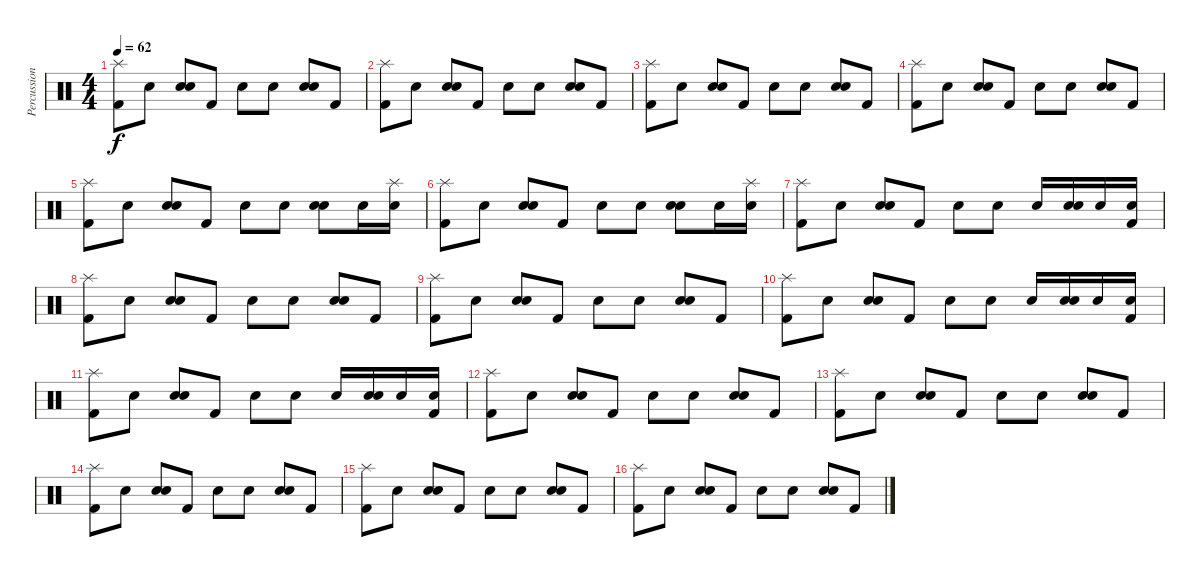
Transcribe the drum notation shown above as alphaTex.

\track ("Percussions" "Percussion") {instrument percussion}
\staff {score}
\articulation defaults
\ts (4 4)
\tempo 62
\clef neutral
\ks c
("Kick (hit) 2" "Splash (hit)").8{dy f} "Electric Snare (hit)".8 ("Snare (hit) 2" "Electric Snare (hit)").8 "Kick (hit) 2".8 "Electric Snare (hit)".8 "Electric Snare (hit)".8 ("Snare (hit) 2" "Electric Snare (hit)").8 "Kick (hit) 2".8 |
("Kick (hit) 2" "Splash (hit)").8 "Electric Snare (hit)".8 ("Snare (hit) 2" "Electric Snare (hit)").8 "Kick (hit) 2".8 "Electric Snare (hit)".8 "Electric Snare (hit)".8 ("Snare (hit) 2" "Electric Snare (hit)").8 "Kick (hit) 2".8 |
("Kick (hit) 2" "Splash (hit)").8 "Electric Snare (hit)".8 ("Snare (hit) 2" "Electric Snare (hit)").8 "Kick (hit) 2".8 "Electric Snare (hit)".8 "Electric Snare (hit)".8 ("Snare (hit) 2" "Electric Snare (hit)").8 "Kick (hit) 2".8 |
("Kick (hit) 2" "Splash (hit)").8 "Electric Snare (hit)".8 ("Snare (hit) 2" "Electric Snare (hit)").8 "Kick (hit) 2".8 "Electric Snare (hit)".8 "Electric Snare (hit)".8 ("Snare (hit) 2" "Electric Snare (hit)").8 "Kick (hit) 2".8 |
("Kick (hit) 2" "Splash (hit)").8 "Electric Snare (hit)".8 ("Snare (hit) 2" "Electric Snare (hit)").8 "Kick (hit) 2".8 "Electric Snare (hit)".8 "Electric Snare (hit)".8 ("Snare (hit) 2" "Electric Snare (hit)").8 "Snare (hit) 2".16 ("Snare (hit) 2" "Splash (hit)").16 |
("Kick (hit) 2" "Splash (hit)").8 "Electric Snare (hit)".8 ("Snare (hit) 2" "Electric Snare (hit)").8 "Kick (hit) 2".8 "Electric Snare (hit)".8 "Electric Snare (hit)".8 ("Snare (hit) 2" "Electric Snare (hit)").8 "Snare (hit) 2".16 ("Snare (hit) 2" "Splash (hit)").16 |
("Kick (hit) 2" "Splash (hit)").8 "Electric Snare (hit)".8 ("Snare (hit) 2" "Electric Snare (hit)").8 "Kick (hit) 2".8 "Electric Snare (hit)".8 "Electric Snare (hit)".8 "Snare (hit) 2".16 ("Snare (hit) 2" "Electric Snare (hit)").16 "Snare (hit) 2".16 ("Electric Snare (hit)" "Kick (hit) 2").16 |
("Kick (hit) 2" "Splash (hit)").8 "Electric Snare (hit)".8 ("Snare (hit) 2" "Electric Snare (hit)").8 "Kick (hit) 2".8 "Electric Snare (hit)".8 "Electric Snare (hit)".8 ("Snare (hit) 2" "Electric Snare (hit)").8 "Kick (hit) 2".8 |
("Kick (hit) 2" "Splash (hit)").8 "Electric Snare (hit)".8 ("Snare (hit) 2" "Electric Snare (hit)").8 "Kick (hit) 2".8 "Electric Snare (hit)".8 "Electric Snare (hit)".8 ("Snare (hit) 2" "Electric Snare (hit)").8 "Kick (hit) 2".8 |
("Kick (hit) 2" "Splash (hit)").8 "Electric Snare (hit)".8 ("Snare (hit) 2" "Electric Snare (hit)").8 "Kick (hit) 2".8 "Electric Snare (hit)".8 "Electric Snare (hit)".8 "Snare (hit) 2".16 ("Snare (hit) 2" "Electric Snare (hit)").16 "Snare (hit) 2".16 ("Electric Snare (hit)" "Kick (hit) 2").16 |
("Kick (hit) 2" "Splash (hit)").8 "Electric Snare (hit)".8 ("Snare (hit) 2" "Electric Snare (hit)").8 "Kick (hit) 2".8 "Electric Snare (hit)".8 "Electric Snare (hit)".8 "Snare (hit) 2".16 ("Snare (hit) 2" "Electric Snare (hit)").16 "Snare (hit) 2".16 ("Electric Snare (hit)" "Kick (hit) 2").16 |
("Kick (hit) 2" "Splash (hit)").8 "Electric Snare (hit)".8 ("Snare (hit) 2" "Electric Snare (hit)").8 "Kick (hit) 2".8 "Electric Snare (hit)".8 "Electric Snare (hit)".8 ("Snare (hit) 2" "Electric Snare (hit)").8 "Kick (hit) 2".8 |
("Kick (hit) 2" "Splash (hit)").8 "Electric Snare (hit)".8 ("Snare (hit) 2" "Electric Snare (hit)").8 "Kick (hit) 2".8 "Electric Snare (hit)".8 "Electric Snare (hit)".8 ("Snare (hit) 2" "Electric Snare (hit)").8 "Kick (hit) 2".8 |
("Kick (hit) 2" "Splash (hit)").8 "Electric Snare (hit)".8 ("Snare (hit) 2" "Electric Snare (hit)").8 "Kick (hit) 2".8 "Electric Snare (hit)".8 "Electric Snare (hit)".8 ("Snare (hit) 2" "Electric Snare (hit)").8 "Kick (hit) 2".8 |
("Kick (hit) 2" "Splash (hit)").8 "Electric Snare (hit)".8 ("Snare (hit) 2" "Electric Snare (hit)").8 "Kick (hit) 2".8 "Electric Snare (hit)".8 "Electric Snare (hit)".8 ("Snare (hit) 2" "Electric Snare (hit)").8 "Kick (hit) 2".8 |
("Kick (hit) 2" "Splash (hit)").8 "Electric Snare (hit)".8 ("Snare (hit) 2" "Electric Snare (hit)").8 "Kick (hit) 2".8 "Electric Snare (hit)".8 "Electric Snare (hit)".8 ("Snare (hit) 2" "Electric Snare (hit)").8 "Kick (hit) 2".8
